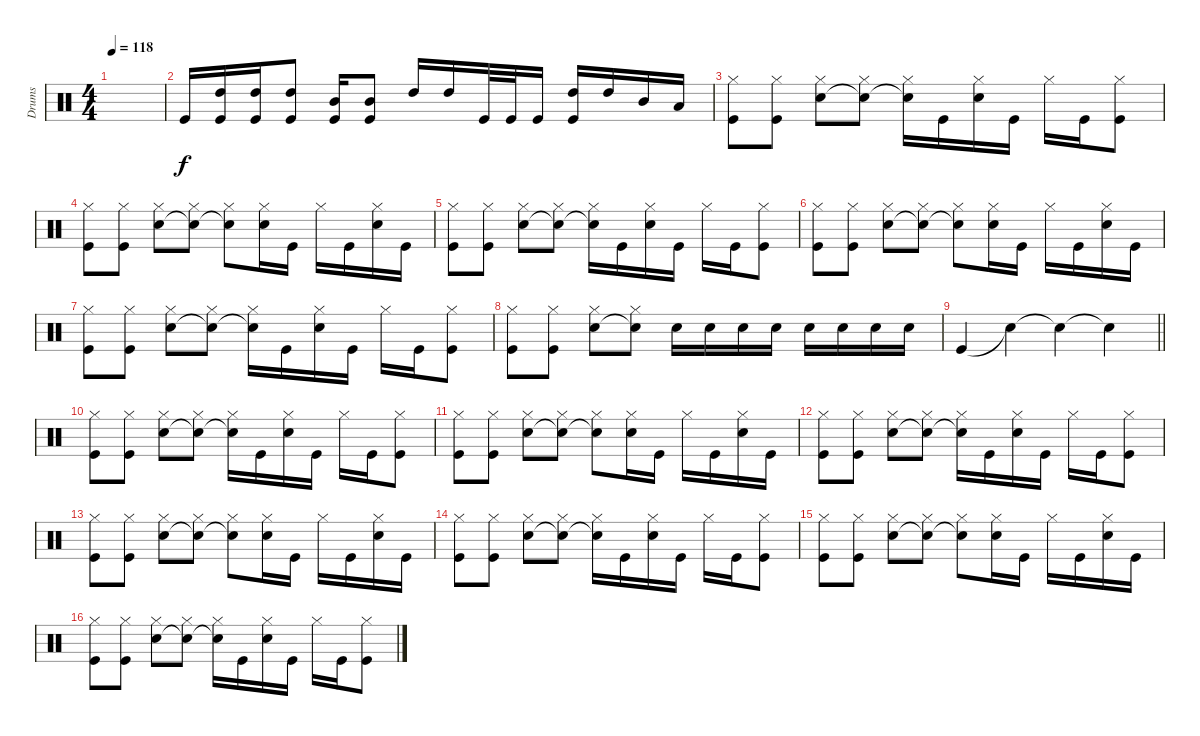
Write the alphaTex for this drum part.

\track ("Drums" "Drums") {instrument percussion}
\staff {score}
\articulation defaults
\ts (4 4)
\tempo 118
\clef neutral
\ks c
|
"Kick (hit)".16 ("High Tom (hit)" "Kick (hit)").16 ("High Tom (hit)" "Kick (hit)").16 ("High Tom (hit)" "Kick (hit)").8 ("Mid Tom (hit)" "Kick (hit)").16 ("Mid Tom (hit)" "Kick (hit)").8 "High Tom (hit)".16 "High Tom (hit)".16 "Kick (hit)".32 "Kick (hit)".32 "Kick (hit)".16 ("High Tom (hit)" "Kick (hit)").16 "High Tom (hit)".16 "Mid Tom (hit)".16 "Low Tom (hit)".16 |
("Hi-Hat (closed)" "Kick (hit)").8 ("Hi-Hat (closed)" "Kick (hit)").8 ("Hi-Hat (closed)" "Snare (hit) 2").8 ("Hi-Hat (closed)" "Snare (hit)"{t}).8 ("Hi-Hat (closed)" "Snare (hit)"{t}).16 "Kick (hit)".16 ("Hi-Hat (closed)" "Snare (hit) 2").16 "Kick (hit)".16 "Hi-Hat (closed)".16 "Kick (hit)".16 ("Hi-Hat (closed)" "Kick (hit)").8 |
("Hi-Hat (closed)" "Kick (hit)").8 ("Hi-Hat (closed)" "Kick (hit)").8 ("Hi-Hat (closed)" "Snare (hit) 2").8 ("Hi-Hat (closed)" "Snare (hit)"{t}).8 ("Hi-Hat (closed)" "Snare (hit)"{t}).8 ("Hi-Hat (closed)" "Snare (hit) 2").16 "Kick (hit)".16 "Hi-Hat (closed)".16 "Kick (hit)".16 ("Hi-Hat (closed)" "Snare (hit) 2").16 "Kick (hit)".16 |
("Hi-Hat (closed)" "Kick (hit)").8 ("Hi-Hat (closed)" "Kick (hit)").8 ("Hi-Hat (closed)" "Snare (hit) 2").8 ("Hi-Hat (closed)" "Snare (hit)"{t}).8 ("Hi-Hat (closed)" "Snare (hit)"{t}).16 "Kick (hit)".16 ("Hi-Hat (closed)" "Snare (hit) 2").16 "Kick (hit)".16 "Hi-Hat (closed)".16 "Kick (hit)".16 ("Hi-Hat (closed)" "Kick (hit)").8 |
("Hi-Hat (closed)" "Kick (hit)").8 ("Hi-Hat (closed)" "Kick (hit)").8 ("Hi-Hat (closed)" "Snare (hit) 2").8 ("Hi-Hat (closed)" "Snare (hit)"{t}).8 ("Hi-Hat (closed)" "Snare (hit)"{t}).8 ("Hi-Hat (closed)" "Snare (hit) 2").16 "Kick (hit)".16 "Hi-Hat (closed)".16 "Kick (hit)".16 ("Hi-Hat (closed)" "Snare (hit) 2").16 "Kick (hit)".16 |
("Hi-Hat (closed)" "Kick (hit)").8 ("Hi-Hat (closed)" "Kick (hit)").8 ("Hi-Hat (closed)" "Snare (hit) 2").8 ("Hi-Hat (closed)" "Snare (hit)"{t}).8 ("Hi-Hat (closed)" "Snare (hit)"{t}).16 "Kick (hit)".16 ("Hi-Hat (closed)" "Snare (hit) 2").16 "Kick (hit)".16 "Hi-Hat (closed)".16 "Kick (hit)".16 ("Hi-Hat (closed)" "Kick (hit)").8 |
("Hi-Hat (closed)" "Kick (hit)").8 ("Hi-Hat (closed)" "Kick (hit)").8 ("Hi-Hat (closed)" "Snare (hit) 2").8 ("Hi-Hat (closed)" "Snare (hit)"{t}).8 "Snare (hit) 2".16 "Snare (hit) 2".16 "Snare (hit) 2".16 "Snare (hit) 2".16 "Snare (hit) 2".16 "Snare (hit) 2".16 "Snare (hit) 2".16 "Snare (hit) 2".16 |
\barLineRight lightlight "Kick (hit)".4 "Snare (hit)"{t}.4 "Snare (hit)"{t}.4 "Snare (hit)"{t}.4
|
\section ("" "")
("Hi-Hat (closed)" "Kick (hit)").8 ("Hi-Hat (closed)" "Kick (hit)").8 ("Hi-Hat (closed)" "Snare (hit) 2").8 ("Hi-Hat (closed)" "Snare (hit)"{t}).8 ("Hi-Hat (closed)" "Snare (hit)"{t}).16 "Kick (hit)".16 ("Hi-Hat (closed)" "Snare (hit) 2").16 "Kick (hit)".16 "Hi-Hat (closed)".16 "Kick (hit)".16 ("Hi-Hat (closed)" "Kick (hit)").8 |
("Hi-Hat (closed)" "Kick (hit)").8 ("Hi-Hat (closed)" "Kick (hit)").8 ("Hi-Hat (closed)" "Snare (hit) 2").8 ("Hi-Hat (closed)" "Snare (hit)"{t}).8 ("Hi-Hat (closed)" "Snare (hit)"{t}).8 ("Hi-Hat (closed)" "Snare (hit) 2").16 "Kick (hit)".16 "Hi-Hat (closed)".16 "Kick (hit)".16 ("Hi-Hat (closed)" "Snare (hit) 2").16 "Kick (hit)".16 |
("Hi-Hat (closed)" "Kick (hit)").8 ("Hi-Hat (closed)" "Kick (hit)").8 ("Hi-Hat (closed)" "Snare (hit) 2").8 ("Hi-Hat (closed)" "Snare (hit)"{t}).8 ("Hi-Hat (closed)" "Snare (hit)"{t}).16 "Kick (hit)".16 ("Hi-Hat (closed)" "Snare (hit) 2").16 "Kick (hit)".16 "Hi-Hat (closed)".16 "Kick (hit)".16 ("Hi-Hat (closed)" "Kick (hit)").8 |
("Hi-Hat (closed)" "Kick (hit)").8 ("Hi-Hat (closed)" "Kick (hit)").8 ("Hi-Hat (closed)" "Snare (hit) 2").8 ("Hi-Hat (closed)" "Snare (hit)"{t}).8 ("Hi-Hat (closed)" "Snare (hit)"{t}).8 ("Hi-Hat (closed)" "Snare (hit) 2").16 "Kick (hit)".16 "Hi-Hat (closed)".16 "Kick (hit)".16 ("Hi-Hat (closed)" "Snare (hit) 2").16 "Kick (hit)".16 |
("Hi-Hat (closed)" "Kick (hit)").8 ("Hi-Hat (closed)" "Kick (hit)").8 ("Hi-Hat (closed)" "Snare (hit) 2").8 ("Hi-Hat (closed)" "Snare (hit)"{t}).8 ("Hi-Hat (closed)" "Snare (hit)"{t}).16 "Kick (hit)".16 ("Hi-Hat (closed)" "Snare (hit) 2").16 "Kick (hit)".16 "Hi-Hat (closed)".16 "Kick (hit)".16 ("Hi-Hat (closed)" "Kick (hit)").8 |
("Hi-Hat (closed)" "Kick (hit)").8 ("Hi-Hat (closed)" "Kick (hit)").8 ("Hi-Hat (closed)" "Snare (hit) 2").8 ("Hi-Hat (closed)" "Snare (hit)"{t}).8 ("Hi-Hat (closed)" "Snare (hit)"{t}).8 ("Hi-Hat (closed)" "Snare (hit) 2").16 "Kick (hit)".16 "Hi-Hat (closed)".16 "Kick (hit)".16 ("Hi-Hat (closed)" "Snare (hit) 2").16 "Kick (hit)".16 |
("Hi-Hat (closed)" "Kick (hit)").8 ("Hi-Hat (closed)" "Kick (hit)").8 ("Hi-Hat (closed)" "Snare (hit) 2").8 ("Hi-Hat (closed)" "Snare (hit)"{t}).8 ("Hi-Hat (closed)" "Snare (hit)"{t}).16 "Kick (hit)".16 ("Hi-Hat (closed)" "Snare (hit) 2").16 "Kick (hit)".16 "Hi-Hat (closed)".16 "Kick (hit)".16 ("Hi-Hat (closed)" "Kick (hit)").8
